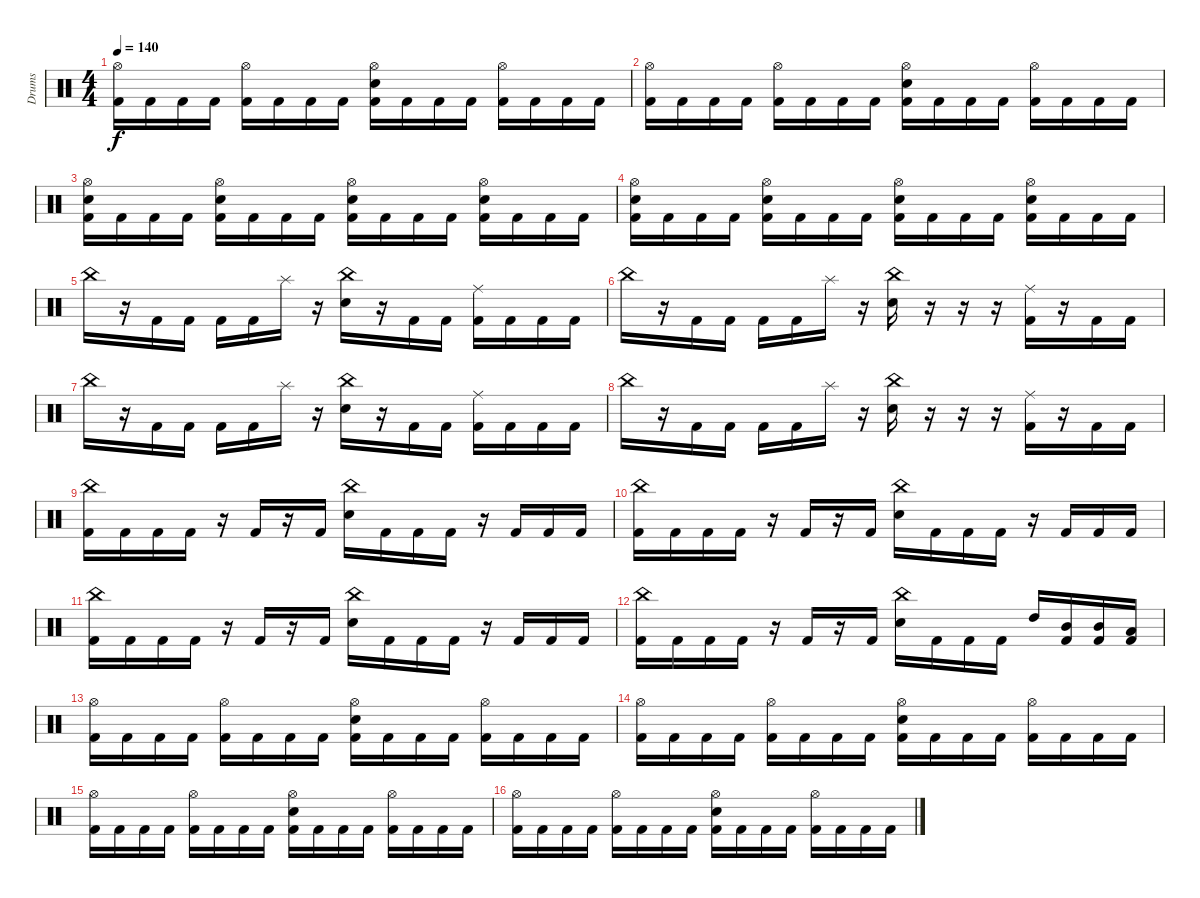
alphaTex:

\track ("Drums" "Drums") {instrument percussion}
\staff {score}
\articulation defaults
\ts (4 4)
\tempo 140
\clef neutral
\ks c
("Hi-Hat (open)" "Kick (hit) 2").16{dy f} "Kick (hit) 2".16 "Kick (hit) 2".16 "Kick (hit) 2".16 ("Hi-Hat (open)" "Kick (hit) 2").16 "Kick (hit) 2".16 "Kick (hit) 2".16 "Kick (hit) 2".16 ("Hi-Hat (open)" "Snare (hit) 2" "Kick (hit) 2").16 "Kick (hit) 2".16 "Kick (hit) 2".16 "Kick (hit) 2".16 ("Hi-Hat (open)" "Kick (hit) 2").16 "Kick (hit) 2".16 "Kick (hit) 2".16 "Kick (hit) 2".16 |
("Hi-Hat (open)" "Kick (hit) 2").16 "Kick (hit) 2".16 "Kick (hit) 2".16 "Kick (hit) 2".16 ("Hi-Hat (open)" "Kick (hit) 2").16 "Kick (hit) 2".16 "Kick (hit) 2".16 "Kick (hit) 2".16 ("Hi-Hat (open)" "Snare (hit) 2" "Kick (hit) 2").16 "Kick (hit) 2".16 "Kick (hit) 2".16 "Kick (hit) 2".16 ("Hi-Hat (open)" "Kick (hit) 2").16 "Kick (hit) 2".16 "Kick (hit) 2".16 "Kick (hit) 2".16 |
("Hi-Hat (open)" "Snare (hit) 2" "Kick (hit) 2").16 "Kick (hit) 2".16 "Kick (hit) 2".16 "Kick (hit) 2".16 ("Hi-Hat (open)" "Snare (hit) 2" "Kick (hit) 2").16 "Kick (hit) 2".16 "Kick (hit) 2".16 "Kick (hit) 2".16 ("Hi-Hat (open)" "Snare (hit) 2" "Kick (hit) 2").16 "Kick (hit) 2".16 "Kick (hit) 2".16 "Kick (hit) 2".16 ("Hi-Hat (open)" "Snare (hit) 2" "Kick (hit) 2").16 "Kick (hit) 2".16 "Kick (hit) 2".16 "Kick (hit) 2".16 |
("Hi-Hat (open)" "Snare (hit) 2" "Kick (hit) 2").16 "Kick (hit) 2".16 "Kick (hit) 2".16 "Kick (hit) 2".16 ("Hi-Hat (open)" "Snare (hit) 2" "Kick (hit) 2").16 "Kick (hit) 2".16 "Kick (hit) 2".16 "Kick (hit) 2".16 ("Hi-Hat (open)" "Snare (hit) 2" "Kick (hit) 2").16 "Kick (hit) 2".16 "Kick (hit) 2".16 "Kick (hit) 2".16 ("Hi-Hat (open)" "Snare (hit) 2" "Kick (hit) 2").16 "Kick (hit) 2".16 "Kick (hit) 2".16 "Kick (hit) 2".16 |
"China (hit)".16 r.16 "Kick (hit) 2".16 "Kick (hit) 2".16 "Kick (hit) 2".16 "Kick (hit) 2".16 "Splash (hit)".16 r.16 ("China (hit)" "Snare (hit) 2").16 r.16 "Kick (hit) 2".16 "Kick (hit) 2".16 ("Ride (middle)" "Kick (hit) 2").16 "Kick (hit) 2".16 "Kick (hit) 2".16 "Kick (hit) 2".16 |
"China (hit)".16 r.16 "Kick (hit) 2".16 "Kick (hit) 2".16 "Kick (hit) 2".16 "Kick (hit) 2".16 "Splash (hit)".16 r.16 ("China (hit)" "Snare (hit) 2").16 r.16 r.16 r.16 ("Ride (middle)" "Kick (hit) 2").16 r.16 "Kick (hit) 2".16 "Kick (hit) 2".16 |
"China (hit)".16 r.16 "Kick (hit) 2".16 "Kick (hit) 2".16 "Kick (hit) 2".16 "Kick (hit) 2".16 "Splash (hit)".16 r.16 ("China (hit)" "Snare (hit) 2").16 r.16 "Kick (hit) 2".16 "Kick (hit) 2".16 ("Ride (middle)" "Kick (hit) 2").16 "Kick (hit) 2".16 "Kick (hit) 2".16 "Kick (hit) 2".16 |
"China (hit)".16 r.16 "Kick (hit) 2".16 "Kick (hit) 2".16 "Kick (hit) 2".16 "Kick (hit) 2".16 "Splash (hit)".16 r.16 ("China (hit)" "Snare (hit) 2").16 r.16 r.16 r.16 ("Ride (middle)" "Kick (hit) 2").16 r.16 "Kick (hit) 2".16 "Kick (hit) 2".16 |
("China (hit)" "Kick (hit) 2").16 "Kick (hit) 2".16 "Kick (hit) 2".16 "Kick (hit) 2".16 r.16 "Kick (hit) 2".16 r.16 "Kick (hit) 2".16 ("China (hit)" "Snare (hit) 2").16 "Kick (hit) 2".16 "Kick (hit) 2".16 "Kick (hit) 2".16 r.16 "Kick (hit) 2".16 "Kick (hit) 2".16 "Kick (hit) 2".16 |
("China (hit)" "Kick (hit) 2").16 "Kick (hit) 2".16 "Kick (hit) 2".16 "Kick (hit) 2".16 r.16 "Kick (hit) 2".16 r.16 "Kick (hit) 2".16 ("China (hit)" "Snare (hit) 2").16 "Kick (hit) 2".16 "Kick (hit) 2".16 "Kick (hit) 2".16 r.16 "Kick (hit) 2".16 "Kick (hit) 2".16 "Kick (hit) 2".16 |
("China (hit)" "Kick (hit) 2").16 "Kick (hit) 2".16 "Kick (hit) 2".16 "Kick (hit) 2".16 r.16 "Kick (hit) 2".16 r.16 "Kick (hit) 2".16 ("China (hit)" "Snare (hit) 2").16 "Kick (hit) 2".16 "Kick (hit) 2".16 "Kick (hit) 2".16 r.16 "Kick (hit) 2".16 "Kick (hit) 2".16 "Kick (hit) 2".16 |
("China (hit)" "Kick (hit) 2").16 "Kick (hit) 2".16 "Kick (hit) 2".16 "Kick (hit) 2".16 r.16 "Kick (hit) 2".16 r.16 "Kick (hit) 2".16 ("China (hit)" "Snare (hit) 2").16 "Kick (hit) 2".16 "Kick (hit) 2".16 "Kick (hit) 2".16 "High Tom (hit)".16 ("Mid Tom (hit)" "Kick (hit) 2").16 ("Mid Tom (hit)" "Kick (hit) 2").16 ("Low Tom (hit)" "Kick (hit) 2").16 |
("Hi-Hat (open)" "Kick (hit) 2").16 "Kick (hit) 2".16 "Kick (hit) 2".16 "Kick (hit) 2".16 ("Hi-Hat (open)" "Kick (hit) 2").16 "Kick (hit) 2".16 "Kick (hit) 2".16 "Kick (hit) 2".16 ("Hi-Hat (open)" "Snare (hit) 2" "Kick (hit) 2").16 "Kick (hit) 2".16 "Kick (hit) 2".16 "Kick (hit) 2".16 ("Hi-Hat (open)" "Kick (hit) 2").16 "Kick (hit) 2".16 "Kick (hit) 2".16 "Kick (hit) 2".16 |
("Hi-Hat (open)" "Kick (hit) 2").16 "Kick (hit) 2".16 "Kick (hit) 2".16 "Kick (hit) 2".16 ("Hi-Hat (open)" "Kick (hit) 2").16 "Kick (hit) 2".16 "Kick (hit) 2".16 "Kick (hit) 2".16 ("Hi-Hat (open)" "Snare (hit) 2" "Kick (hit) 2").16 "Kick (hit) 2".16 "Kick (hit) 2".16 "Kick (hit) 2".16 ("Hi-Hat (open)" "Kick (hit) 2").16 "Kick (hit) 2".16 "Kick (hit) 2".16 "Kick (hit) 2".16 |
("Hi-Hat (open)" "Kick (hit) 2").16 "Kick (hit) 2".16 "Kick (hit) 2".16 "Kick (hit) 2".16 ("Hi-Hat (open)" "Kick (hit) 2").16 "Kick (hit) 2".16 "Kick (hit) 2".16 "Kick (hit) 2".16 ("Hi-Hat (open)" "Snare (hit) 2" "Kick (hit) 2").16 "Kick (hit) 2".16 "Kick (hit) 2".16 "Kick (hit) 2".16 ("Hi-Hat (open)" "Kick (hit) 2").16 "Kick (hit) 2".16 "Kick (hit) 2".16 "Kick (hit) 2".16 |
("Hi-Hat (open)" "Kick (hit) 2").16 "Kick (hit) 2".16 "Kick (hit) 2".16 "Kick (hit) 2".16 ("Hi-Hat (open)" "Kick (hit) 2").16 "Kick (hit) 2".16 "Kick (hit) 2".16 "Kick (hit) 2".16 ("Hi-Hat (open)" "Snare (hit) 2" "Kick (hit) 2").16 "Kick (hit) 2".16 "Kick (hit) 2".16 "Kick (hit) 2".16 ("Hi-Hat (open)" "Kick (hit) 2").16 "Kick (hit) 2".16 "Kick (hit) 2".16 "Kick (hit) 2".16
